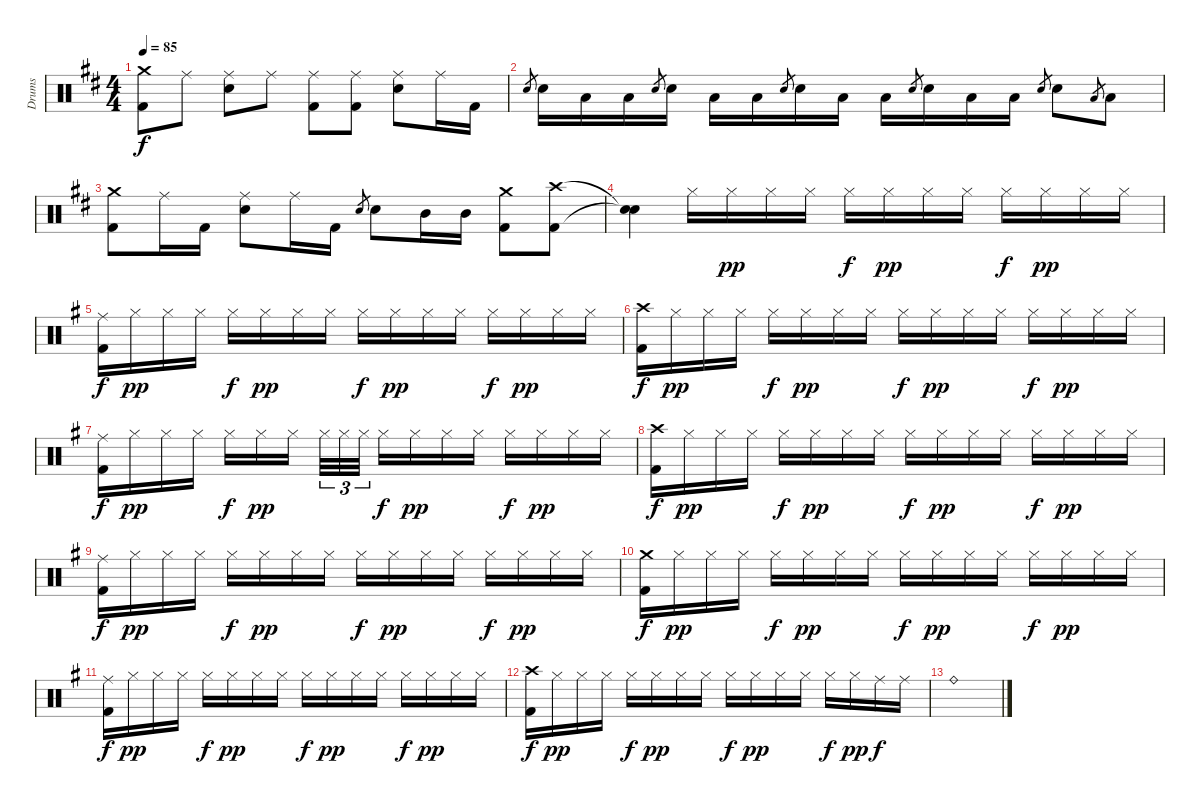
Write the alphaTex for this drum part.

\track ("Drums" "Drums") {instrument percussion}
\staff {score}
\articulation defaults
\ts (4 4)
\tempo 85
\clef neutral
\ks d
("Crash medium (hit)" "Kick (hit) 2").8{dy f} "Ride (middle)".8 ("Ride (middle)" "Snare (hit) 2").8 "Ride (middle)".8 ("Ride (middle)" "Kick (hit) 2").8 ("Ride (middle)" "Kick (hit) 2").8 ("Ride (middle)" "Snare (hit) 2").8 "Ride (middle)".16 "Kick (hit) 2".16 |
"Snare (hit) 2".8{gr} "Snare (hit) 2".16 "Low Tom (hit)".16 "Low Tom (hit)".16 "Snare (hit) 2".8{gr} "Snare (hit) 2".16 "Low Tom (hit)".16 "Low Tom (hit)".16 "Snare (hit) 2".8{gr} "Snare (hit) 2".16 "Low Tom (hit)".16 "Low Tom (hit)".16 "Snare (hit) 2".8{gr} "Snare (hit) 2".16 "Low Tom (hit)".16 "Low Tom (hit)".16 "Snare (hit) 2".8{gr} "Snare (hit) 2".8 "Low Tom (hit)".8{gr} "Low Tom (hit)".8 |
("Crash medium (hit)" "Kick (hit) 2").8 "Ride (middle)".16 "Kick (hit) 2".16 ("Ride (middle)" "Snare (hit) 2").8 "Ride (middle)".16 "Kick (hit) 2".16 "Snare (hit) 2".8{gr} "Snare (hit) 2".8 "Mid Tom (hit)".16 "Mid Tom (hit)".16 ("Crash medium (hit)" "Kick (hit) 2").8 ("Crash high (hit)" "Kick (hit) 2").8 |
("Snare (hit)"{t} "Snare (hit)"{t}).4 "Hi-Hat (closed)".16 "Hi-Hat (closed)".16{dy pp} "Hi-Hat (closed)".16 "Hi-Hat (closed)".16 "Hi-Hat (closed)".16{dy f} "Hi-Hat (closed)".16{dy pp} "Hi-Hat (closed)".16 "Hi-Hat (closed)".16 "Hi-Hat (closed)".16{dy f} "Hi-Hat (closed)".16{dy pp} "Hi-Hat (closed)".16 "Hi-Hat (closed)".16 |
\ks g
("Ride (middle)" "Kick (hit) 2").16{dy f} "Hi-Hat (closed)".16{dy pp} "Hi-Hat (closed)".16 "Hi-Hat (closed)".16 "Hi-Hat (closed)".16{dy f} "Hi-Hat (closed)".16{dy pp} "Hi-Hat (closed)".16 "Hi-Hat (closed)".16 "Hi-Hat (closed)".16{dy f} "Hi-Hat (closed)".16{dy pp} "Hi-Hat (closed)".16 "Hi-Hat (closed)".16 "Hi-Hat (closed)".16{dy f} "Hi-Hat (closed)".16{dy pp} "Hi-Hat (closed)".16 "Hi-Hat (closed)".16 |
("Crash high (hit)" "Kick (hit) 2").16{dy f} "Hi-Hat (closed)".16{dy pp} "Hi-Hat (closed)".16 "Hi-Hat (closed)".16 "Hi-Hat (closed)".16{dy f} "Hi-Hat (closed)".16{dy pp} "Hi-Hat (closed)".16 "Hi-Hat (closed)".16 "Hi-Hat (closed)".16{dy f} "Hi-Hat (closed)".16{dy pp} "Hi-Hat (closed)".16 "Hi-Hat (closed)".16 "Hi-Hat (closed)".16{dy f} "Hi-Hat (closed)".16{dy pp} "Hi-Hat (closed)".16 "Hi-Hat (closed)".16 |
("Ride (middle)" "Kick (hit) 2").16{dy f} "Hi-Hat (closed)".16{dy pp} "Hi-Hat (closed)".16 "Hi-Hat (closed)".16 "Hi-Hat (closed)".16{dy f} "Hi-Hat (closed)".16{dy pp} "Hi-Hat (closed)".16 "Hi-Hat (closed)".32{tu (3 2)} "Hi-Hat (closed)".32{tu (3 2)} "Hi-Hat (closed)".32{tu (3 2)} "Hi-Hat (closed)".16{dy f} "Hi-Hat (closed)".16{dy pp} "Hi-Hat (closed)".16 "Hi-Hat (closed)".16 "Hi-Hat (closed)".16{dy f} "Hi-Hat (closed)".16{dy pp} "Hi-Hat (closed)".16 "Hi-Hat (closed)".16 |
("Crash high (hit)" "Kick (hit) 2").16{dy f} "Hi-Hat (closed)".16{dy pp} "Hi-Hat (closed)".16 "Hi-Hat (closed)".16 "Hi-Hat (closed)".16{dy f} "Hi-Hat (closed)".16{dy pp} "Hi-Hat (closed)".16 "Hi-Hat (closed)".16 "Hi-Hat (closed)".16{dy f} "Hi-Hat (closed)".16{dy pp} "Hi-Hat (closed)".16 "Hi-Hat (closed)".16 "Hi-Hat (closed)".16{dy f} "Hi-Hat (closed)".16{dy pp} "Hi-Hat (closed)".16 "Hi-Hat (closed)".16 |
("Ride (middle)" "Kick (hit) 2").16{dy f} "Hi-Hat (closed)".16{dy pp} "Hi-Hat (closed)".16 "Hi-Hat (closed)".16 "Hi-Hat (closed)".16{dy f} "Hi-Hat (closed)".16{dy pp} "Hi-Hat (closed)".16 "Hi-Hat (closed)".16 "Hi-Hat (closed)".16{dy f} "Hi-Hat (closed)".16{dy pp} "Hi-Hat (closed)".16 "Hi-Hat (closed)".16 "Hi-Hat (closed)".16{dy f} "Hi-Hat (closed)".16{dy pp} "Hi-Hat (closed)".16 "Hi-Hat (closed)".16 |
("Crash medium (hit)" "Kick (hit) 2").16{dy f} "Hi-Hat (closed)".16{dy pp} "Hi-Hat (closed)".16 "Hi-Hat (closed)".16 "Hi-Hat (closed)".16{dy f} "Hi-Hat (closed)".16{dy pp} "Hi-Hat (closed)".16 "Hi-Hat (closed)".16 "Hi-Hat (closed)".16{dy f} "Hi-Hat (closed)".16{dy pp} "Hi-Hat (closed)".16 "Hi-Hat (closed)".16 "Hi-Hat (closed)".16{dy f} "Hi-Hat (closed)".16{dy pp} "Hi-Hat (closed)".16 "Hi-Hat (closed)".16 |
("Ride (middle)" "Kick (hit) 2").16{dy f} "Hi-Hat (closed)".16{dy pp} "Hi-Hat (closed)".16 "Hi-Hat (closed)".16 "Hi-Hat (closed)".16{dy f} "Hi-Hat (closed)".16{dy pp} "Hi-Hat (closed)".16 "Hi-Hat (closed)".16 "Hi-Hat (closed)".16{dy f} "Hi-Hat (closed)".16{dy pp} "Hi-Hat (closed)".16 "Hi-Hat (closed)".16 "Hi-Hat (closed)".16{dy f} "Hi-Hat (closed)".16{dy pp} "Hi-Hat (closed)".16 "Hi-Hat (closed)".16 |
("Crash high (hit)" "Kick (hit) 2").16{dy f} "Hi-Hat (closed)".16{dy pp} "Hi-Hat (closed)".16 "Hi-Hat (closed)".16 "Hi-Hat (closed)".16{dy f} "Hi-Hat (closed)".16{dy pp} "Hi-Hat (closed)".16 "Hi-Hat (closed)".16 "Hi-Hat (closed)".16{dy f} "Hi-Hat (closed)".16{dy pp} "Hi-Hat (closed)".16 "Hi-Hat (closed)".16 "Hi-Hat (closed)".16{dy f} "Hi-Hat (closed)".16{dy pp} "Ride (middle)".16{dy f} "Ride (middle)".16 |
"Ride (bell)".1
